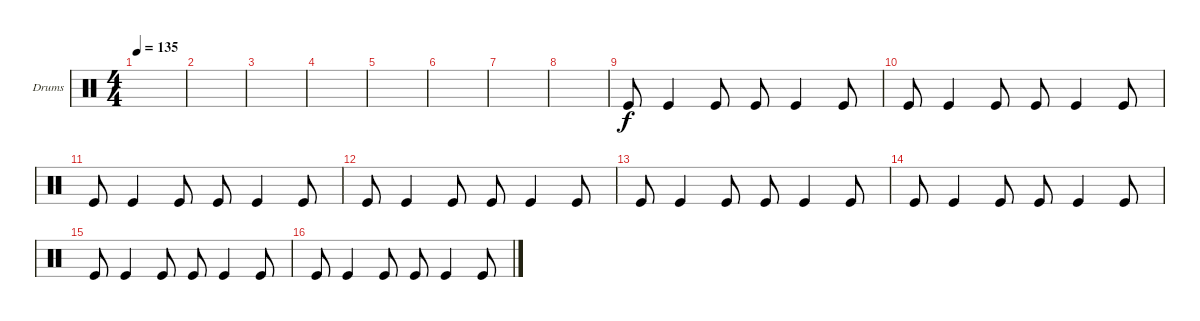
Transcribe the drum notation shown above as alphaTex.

\defaultSystemsLayout 4
\bracketExtendMode groupsimilarinstruments
\firstSystemTrackNameOrientation horizontal
\otherSystemsTrackNameOrientation horizontal
\track ("Helders" "Drums") {instrument percussion}
\staff {score}
\articulation defaults
\ts (4 4)
\tempo 135
\clef neutral
\ks c
|
|
|
|
|
|
|
|
"Kick (hit)".8 "Kick (hit)".4 "Kick (hit)".8 "Kick (hit)".8 "Kick (hit)".4 "Kick (hit)".8 |
"Kick (hit)".8 "Kick (hit)".4 "Kick (hit)".8 "Kick (hit)".8 "Kick (hit)".4 "Kick (hit)".8 |
"Kick (hit)".8 "Kick (hit)".4 "Kick (hit)".8 "Kick (hit)".8 "Kick (hit)".4 "Kick (hit)".8 |
"Kick (hit)".8 "Kick (hit)".4 "Kick (hit)".8 "Kick (hit)".8 "Kick (hit)".4 "Kick (hit)".8 |
"Kick (hit)".8 "Kick (hit)".4 "Kick (hit)".8 "Kick (hit)".8 "Kick (hit)".4 "Kick (hit)".8 |
"Kick (hit)".8 "Kick (hit)".4 "Kick (hit)".8 "Kick (hit)".8 "Kick (hit)".4 "Kick (hit)".8 |
"Kick (hit)".8 "Kick (hit)".4 "Kick (hit)".8 "Kick (hit)".8 "Kick (hit)".4 "Kick (hit)".8 |
"Kick (hit)".8 "Kick (hit)".4 "Kick (hit)".8 "Kick (hit)".8 "Kick (hit)".4 "Kick (hit)".8
